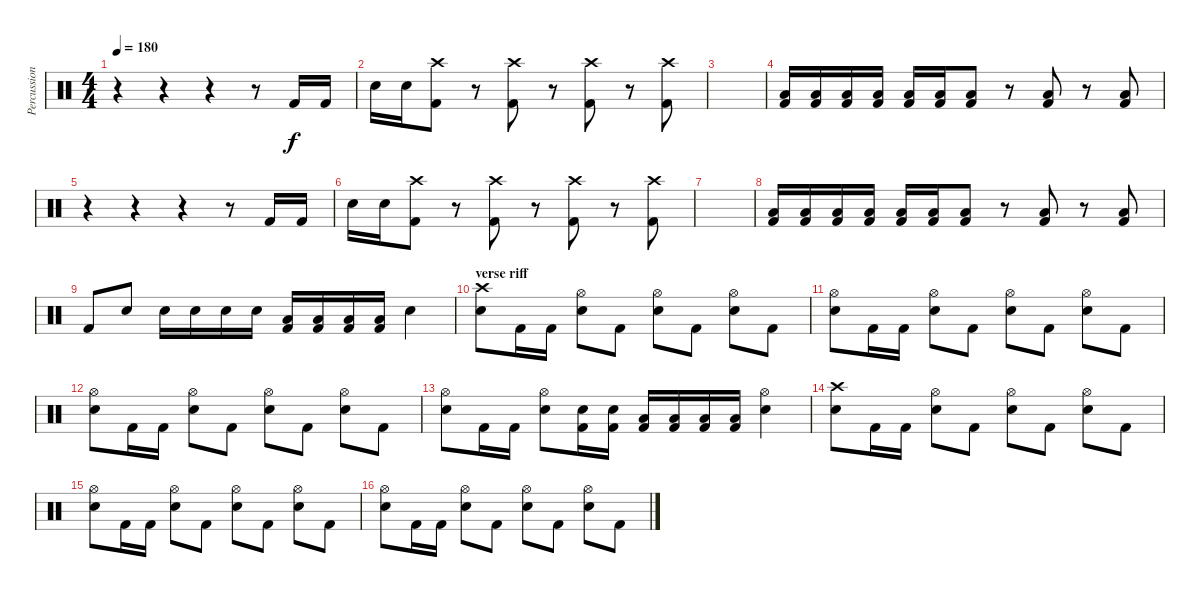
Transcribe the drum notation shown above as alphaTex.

\track ("Percussion" "Percussion") {instrument percussion}
\staff {score}
\articulation defaults
\ts (4 4)
\tempo 180
\clef neutral
\ks c
r.4{dy f} r.4 r.4 r.8 "Kick (hit) 2".16 "Kick (hit) 2".16 |
"Snare (hit) 2".16 "Snare (hit) 2".16 ("Crash high (hit)" "Kick (hit) 2").8 r.8 ("Crash high (hit)" "Kick (hit) 2").8 r.8 ("Crash high (hit)" "Kick (hit) 2").8 r.8 ("Crash high (hit)" "Kick (hit) 2").8 |
|
("Low Floor Tom (hit)" "Kick (hit) 2").16 ("Low Floor Tom (hit)" "Kick (hit) 2").16 ("Low Floor Tom (hit)" "Kick (hit) 2").16 ("Low Floor Tom (hit)" "Kick (hit) 2").16 ("Low Floor Tom (hit)" "Kick (hit) 2").16 ("Low Floor Tom (hit)" "Kick (hit) 2").16 ("Low Floor Tom (hit)" "Kick (hit) 2").8 r.8 ("Low Floor Tom (hit)" "Kick (hit) 2").8 r.8 ("Low Floor Tom (hit)" "Kick (hit) 2").8 |
r.4 r.4 r.4 r.8 "Kick (hit) 2".16 "Kick (hit) 2".16 |
"Snare (hit) 2".16 "Snare (hit) 2".16 ("Crash high (hit)" "Kick (hit) 2").8 r.8 ("Crash high (hit)" "Kick (hit) 2").8 r.8 ("Crash high (hit)" "Kick (hit) 2").8 r.8 ("Crash high (hit)" "Kick (hit) 2").8 |
|
("Low Floor Tom (hit)" "Kick (hit) 2").16 ("Low Floor Tom (hit)" "Kick (hit) 2").16 ("Low Floor Tom (hit)" "Kick (hit) 2").16 ("Low Floor Tom (hit)" "Kick (hit) 2").16 ("Low Floor Tom (hit)" "Kick (hit) 2").16 ("Low Floor Tom (hit)" "Kick (hit) 2").16 ("Low Floor Tom (hit)" "Kick (hit) 2").8 r.8 ("Low Floor Tom (hit)" "Kick (hit) 2").8 r.8 ("Low Floor Tom (hit)" "Kick (hit) 2").8 |
"Kick (hit) 2".8 "Snare (hit) 2".8 "Snare (hit) 2".16 "Snare (hit) 2".16 "Snare (hit) 2".16 "Snare (hit) 2".16 ("Low Tom (hit)" "Kick (hit) 2").16 ("Low Tom (hit)" "Kick (hit) 2").16 ("Low Tom (hit)" "Kick (hit) 2").16 ("Low Tom (hit)" "Kick (hit) 2").16 "Snare (hit) 2".4 |
\section ("" "verse riff")
("Crash high (hit)" "Snare (hit) 2").8 "Kick (hit) 2".16 "Kick (hit) 2".16 ("Hi-Hat (open)" "Snare (hit) 2").8 "Kick (hit) 2".8 ("Hi-Hat (open)" "Snare (hit) 2").8 "Kick (hit) 2".8 ("Hi-Hat (open)" "Snare (hit) 2").8 "Kick (hit) 2".8 |
("Hi-Hat (open)" "Snare (hit) 2").8 "Kick (hit) 2".16 "Kick (hit) 2".16 ("Hi-Hat (open)" "Snare (hit) 2").8 "Kick (hit) 2".8 ("Hi-Hat (open)" "Snare (hit) 2").8 "Kick (hit) 2".8 ("Hi-Hat (open)" "Snare (hit) 2").8 "Kick (hit) 2".8 |
("Hi-Hat (open)" "Snare (hit) 2").8 "Kick (hit) 2".16 "Kick (hit) 2".16 ("Hi-Hat (open)" "Snare (hit) 2").8 "Kick (hit) 2".8 ("Hi-Hat (open)" "Snare (hit) 2").8 "Kick (hit) 2".8 ("Hi-Hat (open)" "Snare (hit) 2").8 "Kick (hit) 2".8 |
("Hi-Hat (open)" "Snare (hit) 2").8 "Kick (hit) 2".16 "Kick (hit) 2".16 ("Hi-Hat (open)" "Snare (hit) 2").8 ("Snare (hit) 2" "Kick (hit) 2").16 ("Snare (hit) 2" "Kick (hit) 2").16 ("Low Tom (hit)" "Kick (hit) 2").16 ("Low Tom (hit)" "Kick (hit) 2").16 ("Low Floor Tom (hit)" "Kick (hit) 2").16 ("Low Floor Tom (hit)" "Kick (hit) 2").16 ("Hi-Hat (open)" "Snare (hit) 2").4 |
("Crash high (hit)" "Snare (hit) 2").8 "Kick (hit) 2".16 "Kick (hit) 2".16 ("Hi-Hat (open)" "Snare (hit) 2").8 "Kick (hit) 2".8 ("Hi-Hat (open)" "Snare (hit) 2").8 "Kick (hit) 2".8 ("Hi-Hat (open)" "Snare (hit) 2").8 "Kick (hit) 2".8 |
("Hi-Hat (open)" "Snare (hit) 2").8 "Kick (hit) 2".16 "Kick (hit) 2".16 ("Hi-Hat (open)" "Snare (hit) 2").8 "Kick (hit) 2".8 ("Hi-Hat (open)" "Snare (hit) 2").8 "Kick (hit) 2".8 ("Hi-Hat (open)" "Snare (hit) 2").8 "Kick (hit) 2".8 |
("Hi-Hat (open)" "Snare (hit) 2").8 "Kick (hit) 2".16 "Kick (hit) 2".16 ("Hi-Hat (open)" "Snare (hit) 2").8 "Kick (hit) 2".8 ("Hi-Hat (open)" "Snare (hit) 2").8 "Kick (hit) 2".8 ("Hi-Hat (open)" "Snare (hit) 2").8 "Kick (hit) 2".8
